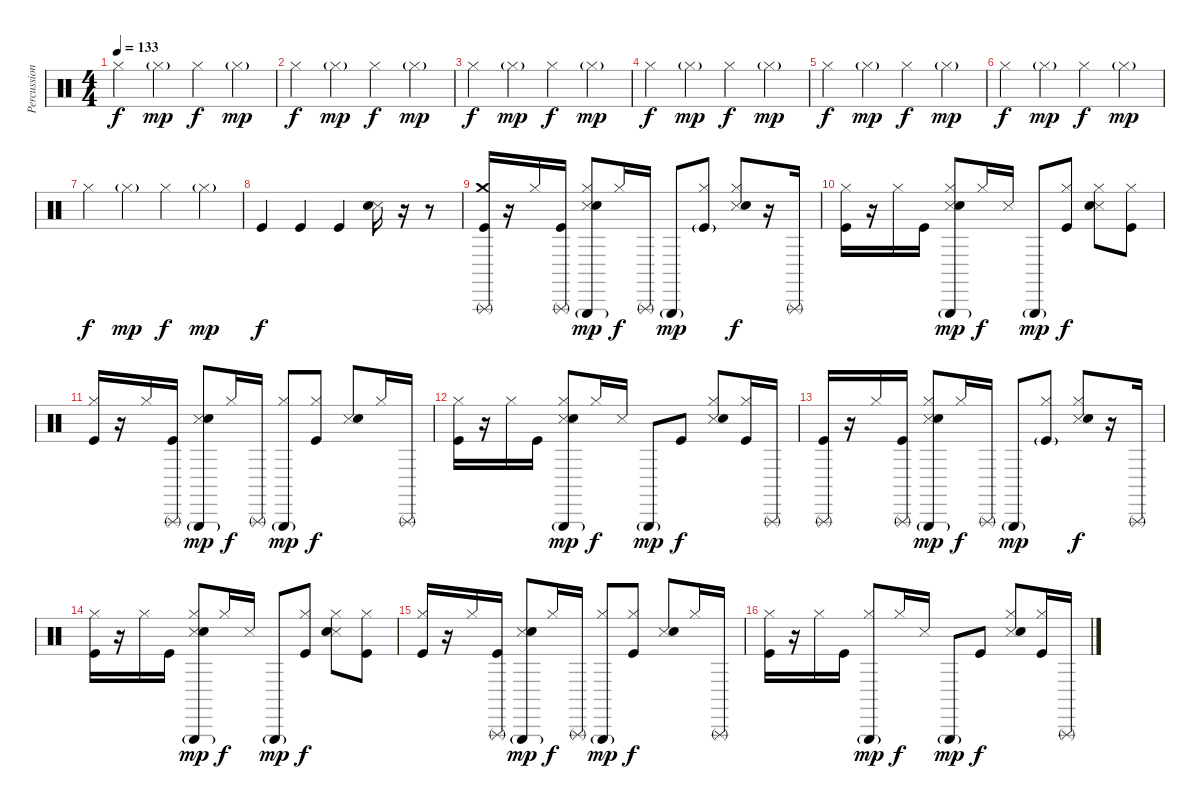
\track ("Percussion" "Percussion") {instrument percussion}
\staff {score}
\articulation defaults
\ts (4 4)
\tempo 133
\clef neutral
\ks c "Hi-Hat (closed)".4{dy f} "Hi-Hat (closed)"{g}.4{dy mp} "Hi-Hat (closed)".4{dy f} "Hi-Hat (closed)"{g}.4{dy mp}
|
"Hi-Hat (closed)".4{dy f} "Hi-Hat (closed)"{g}.4{dy mp} "Hi-Hat (closed)".4{dy f} "Hi-Hat (closed)"{g}.4{dy mp} |
"Hi-Hat (closed)".4{dy f} "Hi-Hat (closed)"{g}.4{dy mp} "Hi-Hat (closed)".4{dy f} "Hi-Hat (closed)"{g}.4{dy mp} |
"Hi-Hat (closed)".4{dy f} "Hi-Hat (closed)"{g}.4{dy mp} "Hi-Hat (closed)".4{dy f} "Hi-Hat (closed)"{g}.4{dy mp} |
"Hi-Hat (closed)".4{dy f} "Hi-Hat (closed)"{g}.4{dy mp} "Hi-Hat (closed)".4{dy f} "Hi-Hat (closed)"{g}.4{dy mp} |
"Hi-Hat (closed)".4{dy f} "Hi-Hat (closed)"{g}.4{dy mp} "Hi-Hat (closed)".4{dy f} "Hi-Hat (closed)"{g}.4{dy mp} |
"Hi-Hat (closed)".4{dy f} "Hi-Hat (closed)"{g}.4{dy mp} "Hi-Hat (closed)".4{dy f} "Hi-Hat (closed)"{g}.4{dy mp} |
"Kick (hit)".4{dy f} "Kick (hit)".4 "Kick (hit)".4 ("Snare (side stick) 3" "Electric Snare (hit)").16 r.16 r.8 |
("Crash medium (hit)" "Triangle (rnute)" "Kick (hit)").16 r.16 "Hi-Hat (closed)".16 ("Triangle (rnute)" "Kick (hit)").16 ("Hi-Hat (closed)" "Triangle (hit)"{g} "Snare (side stick) 3" "Electric Snare (hit)").8{dy mp} "Hi-Hat (closed)".16{dy f} "Triangle (rnute)".16 "Triangle (hit)"{g}.8{dy mp} ("Hi-Hat (closed)" "Kick (hit)"{g}).8 ("Hi-Hat (closed)" "Snare (side stick) 3" "Electric Snare (hit)").8{dy f} r.16 "Triangle (rnute)".16 |
("Hi-Hat (closed)" "Kick (hit)").16 r.16 "Hi-Hat (closed)".16 "Kick (hit)".16 ("Hi-Hat (closed)" "Triangle (hit)"{g} "Snare (side stick) 3" "Electric Snare (hit)").8{dy mp} "Hi-Hat (closed)".16{dy f} "Snare (side stick) 3".16 "Triangle (hit)"{g}.8{dy mp} ("Hi-Hat (closed)" "Kick (hit)").8{dy f} ("Hi-Hat (closed)" "Snare (side stick) 3" "Electric Snare (hit)").8 ("Hi-Hat (closed)" "Kick (hit)").8 |
("Hi-Hat (closed)" "Kick (hit)").16 r.16 "Hi-Hat (closed)".16 ("Triangle (rnute)" "Kick (hit)").16 ("Triangle (hit)"{g} "Snare (side stick) 3" "Electric Snare (hit)").8{dy mp} "Hi-Hat (closed)".16{dy f} "Triangle (rnute)".16 ("Hi-Hat (closed)" "Triangle (hit)"{g}).8{dy mp} ("Hi-Hat (closed)" "Kick (hit)").8{dy f} ("Snare (side stick) 3" "Electric Snare (hit)").8 "Hi-Hat (closed)".16 "Triangle (rnute)".16 |
("Hi-Hat (closed)" "Kick (hit)").16 r.16 "Hi-Hat (closed)".16 "Kick (hit)".16 ("Hi-Hat (closed)" "Triangle (hit)"{g} "Snare (side stick) 3" "Electric Snare (hit)").8{dy mp} "Hi-Hat (closed)".16{dy f} "Snare (side stick) 3".16 "Triangle (hit)"{g}.8{dy mp} "Kick (hit)".8{dy f} ("Hi-Hat (closed)" "Snare (side stick) 3" "Electric Snare (hit)").8 ("Hi-Hat (closed)" "Kick (hit)").16 "Triangle (rnute)".16 |
("Triangle (rnute)" "Kick (hit)").16 r.16 "Hi-Hat (closed)".16 ("Triangle (rnute)" "Kick (hit)").16 ("Hi-Hat (closed)" "Triangle (hit)"{g} "Snare (side stick) 3" "Electric Snare (hit)").8{dy mp} "Hi-Hat (closed)".16{dy f} "Triangle (rnute)".16 "Triangle (hit)"{g}.8{dy mp} ("Hi-Hat (closed)" "Kick (hit)"{g}).8 ("Hi-Hat (closed)" "Snare (side stick) 3" "Electric Snare (hit)").8{dy f} r.16 "Triangle (rnute)".16 |
("Hi-Hat (closed)" "Kick (hit)").16 r.16 "Hi-Hat (closed)".16 "Kick (hit)".16 ("Hi-Hat (closed)" "Triangle (hit)"{g} "Snare (side stick) 3" "Electric Snare (hit)").8{dy mp} "Hi-Hat (closed)".16{dy f} "Snare (side stick) 3".16 "Triangle (hit)"{g}.8{dy mp} ("Hi-Hat (closed)" "Kick (hit)").8{dy f} ("Hi-Hat (closed)" "Snare (side stick) 3" "Electric Snare (hit)").8 ("Hi-Hat (closed)" "Kick (hit)").8 |
("Hi-Hat (closed)" "Kick (hit)").16 r.16 "Hi-Hat (closed)".16 ("Triangle (rnute)" "Kick (hit)").16 ("Triangle (hit)"{g} "Snare (side stick) 3" "Electric Snare (hit)").8{dy mp} "Hi-Hat (closed)".16{dy f} "Triangle (rnute)".16 ("Hi-Hat (closed)" "Triangle (hit)"{g}).8{dy mp} ("Hi-Hat (closed)" "Kick (hit)").8{dy f} ("Snare (side stick) 3" "Electric Snare (hit)").8 "Hi-Hat (closed)".16 "Triangle (rnute)".16 |
("Hi-Hat (closed)" "Kick (hit)").16 r.16 "Hi-Hat (closed)".16 "Kick (hit)".16 ("Hi-Hat (closed)" "Triangle (hit)"{g}).8{dy mp} "Hi-Hat (closed)".16{dy f} "Snare (side stick) 3".16 "Triangle (hit)"{g}.8{dy mp} "Kick (hit)".8{dy f} ("Hi-Hat (closed)" "Snare (side stick) 3" "Electric Snare (hit)").8 ("Hi-Hat (closed)" "Kick (hit)").16 "Triangle (rnute)".16
